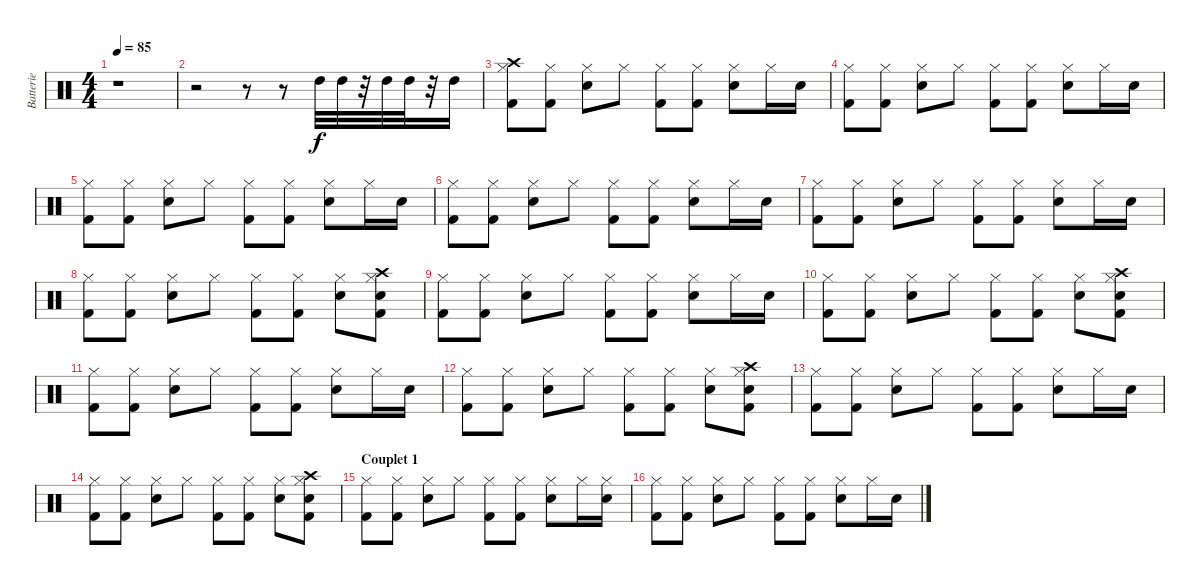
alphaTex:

\track ("Batterie" "Batterie") {instrument percussion}
\staff {score}
\articulation defaults
\ts (4 4)
\tempo 85
\clef neutral
\ks c
r.1{dy f} |
r.2 r.8 r.8 "High Tom (hit)".32 "High Tom (hit)".32 r.32 "High Tom (hit)".32 "High Tom (hit)".32 r.32 "High Tom (hit)".16 |
("Crash high (hit)" "Hi-Hat (closed)" "Kick (hit) 2").8 ("Hi-Hat (closed)" "Kick (hit) 2").8 ("Hi-Hat (closed)" "Snare (hit) 2").8 "Hi-Hat (closed)".8 ("Hi-Hat (closed)" "Kick (hit) 2").8 ("Hi-Hat (closed)" "Kick (hit) 2").8 ("Hi-Hat (closed)" "Snare (hit) 2").8 "Hi-Hat (closed)".16 "Snare (hit) 2".16 |
("Hi-Hat (closed)" "Kick (hit) 2").8 ("Hi-Hat (closed)" "Kick (hit) 2").8 ("Hi-Hat (closed)" "Snare (hit) 2").8 "Hi-Hat (closed)".8 ("Hi-Hat (closed)" "Kick (hit) 2").8 ("Hi-Hat (closed)" "Kick (hit) 2").8 ("Hi-Hat (closed)" "Snare (hit) 2").8 "Hi-Hat (closed)".16 "Snare (hit) 2".16 |
("Hi-Hat (closed)" "Kick (hit) 2").8 ("Hi-Hat (closed)" "Kick (hit) 2").8 ("Hi-Hat (closed)" "Snare (hit) 2").8 "Hi-Hat (closed)".8 ("Hi-Hat (closed)" "Kick (hit) 2").8 ("Hi-Hat (closed)" "Kick (hit) 2").8 ("Hi-Hat (closed)" "Snare (hit) 2").8 "Hi-Hat (closed)".16 "Snare (hit) 2".16 |
("Hi-Hat (closed)" "Kick (hit) 2").8 ("Hi-Hat (closed)" "Kick (hit) 2").8 ("Hi-Hat (closed)" "Snare (hit) 2").8 "Hi-Hat (closed)".8 ("Hi-Hat (closed)" "Kick (hit) 2").8 ("Hi-Hat (closed)" "Kick (hit) 2").8 ("Hi-Hat (closed)" "Snare (hit) 2").8 "Hi-Hat (closed)".16 "Snare (hit) 2".16 |
("Hi-Hat (closed)" "Kick (hit) 2").8 ("Hi-Hat (closed)" "Kick (hit) 2").8 ("Hi-Hat (closed)" "Snare (hit) 2").8 "Hi-Hat (closed)".8 ("Hi-Hat (closed)" "Kick (hit) 2").8 ("Hi-Hat (closed)" "Kick (hit) 2").8 ("Hi-Hat (closed)" "Snare (hit) 2").8 "Hi-Hat (closed)".16 "Snare (hit) 2".16 |
("Hi-Hat (closed)" "Kick (hit) 2").8 ("Hi-Hat (closed)" "Kick (hit) 2").8 ("Hi-Hat (closed)" "Snare (hit) 2").8 "Hi-Hat (closed)".8 ("Hi-Hat (closed)" "Kick (hit) 2").8 ("Hi-Hat (closed)" "Kick (hit) 2").8 ("Hi-Hat (closed)" "Snare (hit) 2").8 ("Crash high (hit)" "Hi-Hat (closed)" "Snare (hit) 2" "Kick (hit) 2").8 |
("Hi-Hat (closed)" "Kick (hit) 2").8 ("Hi-Hat (closed)" "Kick (hit) 2").8 ("Hi-Hat (closed)" "Snare (hit) 2").8 "Hi-Hat (closed)".8 ("Hi-Hat (closed)" "Kick (hit) 2").8 ("Hi-Hat (closed)" "Kick (hit) 2").8 ("Hi-Hat (closed)" "Snare (hit) 2").8 "Hi-Hat (closed)".16 "Snare (hit) 2".16 |
("Hi-Hat (closed)" "Kick (hit) 2").8 ("Hi-Hat (closed)" "Kick (hit) 2").8 ("Hi-Hat (closed)" "Snare (hit) 2").8 "Hi-Hat (closed)".8 ("Hi-Hat (closed)" "Kick (hit) 2").8 ("Hi-Hat (closed)" "Kick (hit) 2").8 ("Hi-Hat (closed)" "Snare (hit) 2").8 ("Crash high (hit)" "Hi-Hat (closed)" "Snare (hit) 2" "Kick (hit) 2").8 |
("Hi-Hat (closed)" "Kick (hit) 2").8 ("Hi-Hat (closed)" "Kick (hit) 2").8 ("Hi-Hat (closed)" "Snare (hit) 2").8 "Hi-Hat (closed)".8 ("Hi-Hat (closed)" "Kick (hit) 2").8 ("Hi-Hat (closed)" "Kick (hit) 2").8 ("Hi-Hat (closed)" "Snare (hit) 2").8 "Hi-Hat (closed)".16 "Snare (hit) 2".16 |
("Hi-Hat (closed)" "Kick (hit) 2").8 ("Hi-Hat (closed)" "Kick (hit) 2").8 ("Hi-Hat (closed)" "Snare (hit) 2").8 "Hi-Hat (closed)".8 ("Hi-Hat (closed)" "Kick (hit) 2").8 ("Hi-Hat (closed)" "Kick (hit) 2").8 ("Hi-Hat (closed)" "Snare (hit) 2").8 ("Crash high (hit)" "Hi-Hat (closed)" "Snare (hit) 2" "Kick (hit) 2").8 |
("Hi-Hat (closed)" "Kick (hit) 2").8 ("Hi-Hat (closed)" "Kick (hit) 2").8 ("Hi-Hat (closed)" "Snare (hit) 2").8 "Hi-Hat (closed)".8 ("Hi-Hat (closed)" "Kick (hit) 2").8 ("Hi-Hat (closed)" "Kick (hit) 2").8 ("Hi-Hat (closed)" "Snare (hit) 2").8 "Hi-Hat (closed)".16 "Snare (hit) 2".16 |
("Hi-Hat (closed)" "Kick (hit) 2").8 ("Hi-Hat (closed)" "Kick (hit) 2").8 ("Hi-Hat (closed)" "Snare (hit) 2").8 "Hi-Hat (closed)".8 ("Hi-Hat (closed)" "Kick (hit) 2").8 ("Hi-Hat (closed)" "Kick (hit) 2").8 ("Hi-Hat (closed)" "Snare (hit) 2").8 ("Crash high (hit)" "Hi-Hat (closed)" "Snare (hit) 2" "Kick (hit) 2").8 |
\section ("" "Couplet 1")
("Hi-Hat (closed)" "Kick (hit) 2").8 ("Hi-Hat (closed)" "Kick (hit) 2").8 ("Hi-Hat (closed)" "Snare (hit) 2").8 "Hi-Hat (closed)".8 ("Hi-Hat (closed)" "Kick (hit) 2").8 ("Hi-Hat (closed)" "Kick (hit) 2").8 ("Hi-Hat (closed)" "Snare (hit) 2").8 "Hi-Hat (closed)".16 ("Hi-Hat (closed)" "Snare (hit) 2").16 |
("Hi-Hat (closed)" "Kick (hit) 2").8 ("Hi-Hat (closed)" "Kick (hit) 2").8 ("Hi-Hat (closed)" "Snare (hit) 2").8 "Hi-Hat (closed)".8 ("Hi-Hat (closed)" "Kick (hit) 2").8 ("Hi-Hat (closed)" "Kick (hit) 2").8 ("Hi-Hat (closed)" "Snare (hit) 2").8 "Hi-Hat (closed)".16 "Snare (hit) 2".16
